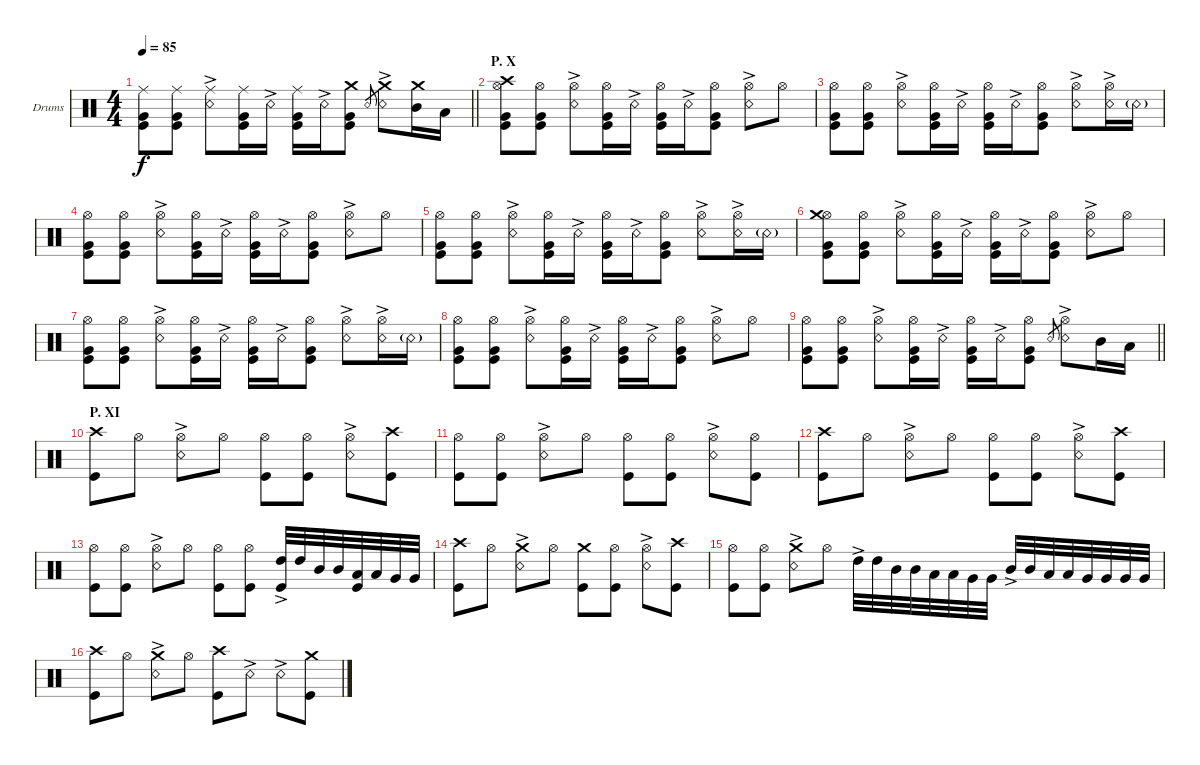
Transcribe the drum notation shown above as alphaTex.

\bracketExtendMode groupsimilarinstruments
\firstSystemTrackNameOrientation horizontal
\otherSystemsTrackNameOrientation horizontal
\track ("Drumkit" "Drums") {instrument percussion}
\staff {score}
\articulation defaults
\ts (4 4)
\tempo 85
\clef neutral
\barLineRight lightlight
\ks c
("Ride (middle)" "Kick (hit)" "Very Low Tom (hit)").8{dy f} ("Ride (middle)" "Kick (hit)" "Very Low Tom (hit)").8 ("Ride (middle)" "Snare (rim shot)"{ac}).8 ("Ride (middle)" "Kick (hit)" "Very Low Tom (hit)").16 "Snare (rim shot)"{ac}.16 ("Ride (middle)" "Kick (hit)" "Very Low Tom (hit)").16 "Snare (rim shot)"{ac}.16 ("Crash medium (hit)" "Kick (hit)" "Very Low Tom (hit)").8 "Snare (rim shot)".8{gr} ("Crash medium (hit)" "Snare (rim shot)"{ac}).8 ("Crash medium (hit)" "Mid Tom (hit)").16 "Low Tom (hit)".16 |
\section ("" "P. X")
("Hi-Hat (open)" "Kick (hit)" "Crash high (hit)" "Very Low Tom (hit)").8 ("Hi-Hat (open)" "Kick (hit)" "Very Low Tom (hit)").8 ("Hi-Hat (open)" "Snare (rim shot)"{ac}).8 ("Hi-Hat (open)" "Kick (hit)" "Very Low Tom (hit)").16 "Snare (rim shot)"{ac}.16 ("Hi-Hat (open)" "Kick (hit)" "Very Low Tom (hit)").16 "Snare (rim shot)"{ac}.16 ("Hi-Hat (open)" "Kick (hit)" "Very Low Tom (hit)").8 ("Hi-Hat (open)" "Snare (rim shot)"{ac}).8 "Hi-Hat (open)".8 |
("Hi-Hat (open)" "Kick (hit)" "Very Low Tom (hit)").8 ("Hi-Hat (open)" "Kick (hit)" "Very Low Tom (hit)").8 ("Hi-Hat (open)" "Snare (rim shot)"{ac}).8 ("Hi-Hat (open)" "Kick (hit)" "Very Low Tom (hit)").16 "Snare (rim shot)"{ac}.16 ("Hi-Hat (open)" "Kick (hit)" "Very Low Tom (hit)").16 "Snare (rim shot)"{ac}.16 ("Hi-Hat (open)" "Kick (hit)" "Very Low Tom (hit)").8 ("Hi-Hat (open)" "Snare (rim shot)"{ac}).8 ("Hi-Hat (open)" "Snare (rim shot)"{ac}).16 "Snare (rim shot)"{g}.16 |
("Hi-Hat (open)" "Kick (hit)" "Very Low Tom (hit)").8 ("Hi-Hat (open)" "Kick (hit)" "Very Low Tom (hit)").8 ("Hi-Hat (open)" "Snare (rim shot)"{ac}).8 ("Hi-Hat (open)" "Kick (hit)" "Very Low Tom (hit)").16 "Snare (rim shot)"{ac}.16 ("Hi-Hat (open)" "Kick (hit)" "Very Low Tom (hit)").16 "Snare (rim shot)"{ac}.16 ("Hi-Hat (open)" "Kick (hit)" "Very Low Tom (hit)").8 ("Hi-Hat (open)" "Snare (rim shot)"{ac}).8 "Hi-Hat (open)".8 |
("Hi-Hat (open)" "Kick (hit)" "Very Low Tom (hit)").8 ("Hi-Hat (open)" "Kick (hit)" "Very Low Tom (hit)").8 ("Hi-Hat (open)" "Snare (rim shot)"{ac}).8 ("Hi-Hat (open)" "Kick (hit)" "Very Low Tom (hit)").16 "Snare (rim shot)"{ac}.16 ("Hi-Hat (open)" "Kick (hit)" "Very Low Tom (hit)").16 "Snare (rim shot)"{ac}.16 ("Hi-Hat (open)" "Kick (hit)" "Very Low Tom (hit)").8 ("Hi-Hat (open)" "Snare (rim shot)"{ac}).8 ("Hi-Hat (open)" "Snare (rim shot)"{ac}).16 "Snare (rim shot)"{g}.16 |
("Hi-Hat (open)" "Kick (hit)" "Crash medium (hit)" "Very Low Tom (hit)").8 ("Hi-Hat (open)" "Kick (hit)" "Very Low Tom (hit)").8 ("Hi-Hat (open)" "Snare (rim shot)"{ac}).8 ("Hi-Hat (open)" "Kick (hit)" "Very Low Tom (hit)").16 "Snare (rim shot)"{ac}.16 ("Hi-Hat (open)" "Kick (hit)" "Very Low Tom (hit)").16 "Snare (rim shot)"{ac}.16 ("Hi-Hat (open)" "Kick (hit)" "Very Low Tom (hit)").8 ("Hi-Hat (open)" "Snare (rim shot)"{ac}).8 "Hi-Hat (open)".8 |
("Hi-Hat (open)" "Kick (hit)" "Very Low Tom (hit)").8 ("Hi-Hat (open)" "Kick (hit)" "Very Low Tom (hit)").8 ("Hi-Hat (open)" "Snare (rim shot)"{ac}).8 ("Hi-Hat (open)" "Kick (hit)" "Very Low Tom (hit)").16 "Snare (rim shot)"{ac}.16 ("Hi-Hat (open)" "Kick (hit)" "Very Low Tom (hit)").16 "Snare (rim shot)"{ac}.16 ("Hi-Hat (open)" "Kick (hit)" "Very Low Tom (hit)").8 ("Hi-Hat (open)" "Snare (rim shot)"{ac}).8 ("Hi-Hat (open)" "Snare (rim shot)"{ac}).16 "Snare (rim shot)"{g}.16 |
("Hi-Hat (open)" "Kick (hit)" "Very Low Tom (hit)").8 ("Hi-Hat (open)" "Kick (hit)" "Very Low Tom (hit)").8 ("Hi-Hat (open)" "Snare (rim shot)"{ac}).8 ("Hi-Hat (open)" "Kick (hit)" "Very Low Tom (hit)").16 "Snare (rim shot)"{ac}.16 ("Hi-Hat (open)" "Kick (hit)" "Very Low Tom (hit)").16 "Snare (rim shot)"{ac}.16 ("Hi-Hat (open)" "Kick (hit)" "Very Low Tom (hit)").8 ("Hi-Hat (open)" "Snare (rim shot)"{ac}).8 "Hi-Hat (open)".8 |
\barLineRight lightlight
("Hi-Hat (open)" "Kick (hit)" "Very Low Tom (hit)").8 ("Hi-Hat (open)" "Kick (hit)" "Very Low Tom (hit)").8 ("Hi-Hat (open)" "Snare (rim shot)"{ac}).8 ("Hi-Hat (open)" "Kick (hit)" "Very Low Tom (hit)").16 "Snare (rim shot)"{ac}.16 ("Hi-Hat (open)" "Kick (hit)" "Very Low Tom (hit)").16 "Snare (rim shot)"{ac}.16 ("Hi-Hat (open)" "Kick (hit)" "Very Low Tom (hit)").8 "Snare (rim shot)".8{gr} ("Hi-Hat (open)" "Snare (rim shot)"{ac}).8 "Mid Tom (hit)".16 "Low Tom (hit)".16 |
\section ("" "P. XI")
("Kick (hit)" "Crash high (hit)").8 "Hi-Hat (open)".8 ("Hi-Hat (open)" "Snare (rim shot)"{ac}).8 "Hi-Hat (open)".8 ("Hi-Hat (open)" "Kick (hit)").8 ("Hi-Hat (open)" "Kick (hit)").8 ("Hi-Hat (open)" "Snare (rim shot)"{ac}).8 ("Kick (hit)" "Crash high (hit)").8 |
("Hi-Hat (open)" "Kick (hit)").8 ("Hi-Hat (open)" "Kick (hit)").8 ("Hi-Hat (open)" "Snare (rim shot)"{ac}).8 "Hi-Hat (open)".8 ("Hi-Hat (open)" "Kick (hit)").8 ("Hi-Hat (open)" "Kick (hit)").8 ("Hi-Hat (open)" "Snare (rim shot)"{ac}).8 ("Hi-Hat (open)" "Kick (hit)").8 |
("Kick (hit)" "Crash high (hit)").8 "Hi-Hat (open)".8 ("Hi-Hat (open)" "Snare (rim shot)"{ac}).8 "Hi-Hat (open)".8 ("Hi-Hat (open)" "Kick (hit)").8 ("Hi-Hat (open)" "Kick (hit)").8 ("Hi-Hat (open)" "Snare (rim shot)"{ac}).8 ("Kick (hit)" "Crash high (hit)").8 |
("Hi-Hat (open)" "Kick (hit)").8 ("Hi-Hat (open)" "Kick (hit)").8 ("Hi-Hat (open)" "Snare (rim shot)"{ac}).8 "Hi-Hat (open)".8 ("Hi-Hat (open)" "Kick (hit)").8 ("Hi-Hat (open)" "Kick (hit)").8 ("High Tom (hit)"{ac} "Kick (hit)").32 "High Tom (hit)".32 "Mid Tom (hit)".32 "Mid Tom (hit)".32 ("Low Tom (hit)" "Kick (hit)").32 "Low Tom (hit)".32 "Very Low Tom (hit)".32 "Very Low Tom (hit)".32 |
("Kick (hit)" "Crash high (hit)").8 "Hi-Hat (open)".8 ("Snare (rim shot)"{ac} "Crash medium (hit)").8 "Hi-Hat (open)".8 ("Kick (hit)" "Crash medium (hit)").8 ("Hi-Hat (open)" "Kick (hit)").8 ("Hi-Hat (open)" "Snare (rim shot)"{ac}).8 ("Kick (hit)" "Crash high (hit)").8 |
("Hi-Hat (open)" "Kick (hit)").8 ("Hi-Hat (open)" "Kick (hit)").8 ("Crash medium (hit)" "Snare (rim shot)"{ac}).8 "Hi-Hat (open)".8 "High Tom (hit)"{ac}.32 "High Tom (hit)".32 "Mid Tom (hit)".32 "Mid Tom (hit)".32 "Low Tom (hit)".32 "Low Tom (hit)".32 "Very Low Tom (hit)".32 "Very Low Tom (hit)".32 "Mid Tom (hit)"{ac}.32 "Mid Tom (hit)".32 "Low Tom (hit)".32 "Low Tom (hit)".32 "Very Low Tom (hit)".32 "Very Low Tom (hit)".32 "Very Low Tom (hit)".32 "Very Low Tom (hit)".32 |
("Kick (hit)" "Crash high (hit)").8 "Hi-Hat (open)".8 ("Snare (rim shot)"{ac} "Crash medium (hit)").8 "Hi-Hat (open)".8 ("Kick (hit)" "Crash high (hit)").8 "Snare (rim shot)"{ac}.8 "Snare (rim shot)"{ac}.8 ("Kick (hit)" "Crash medium (hit)").8
